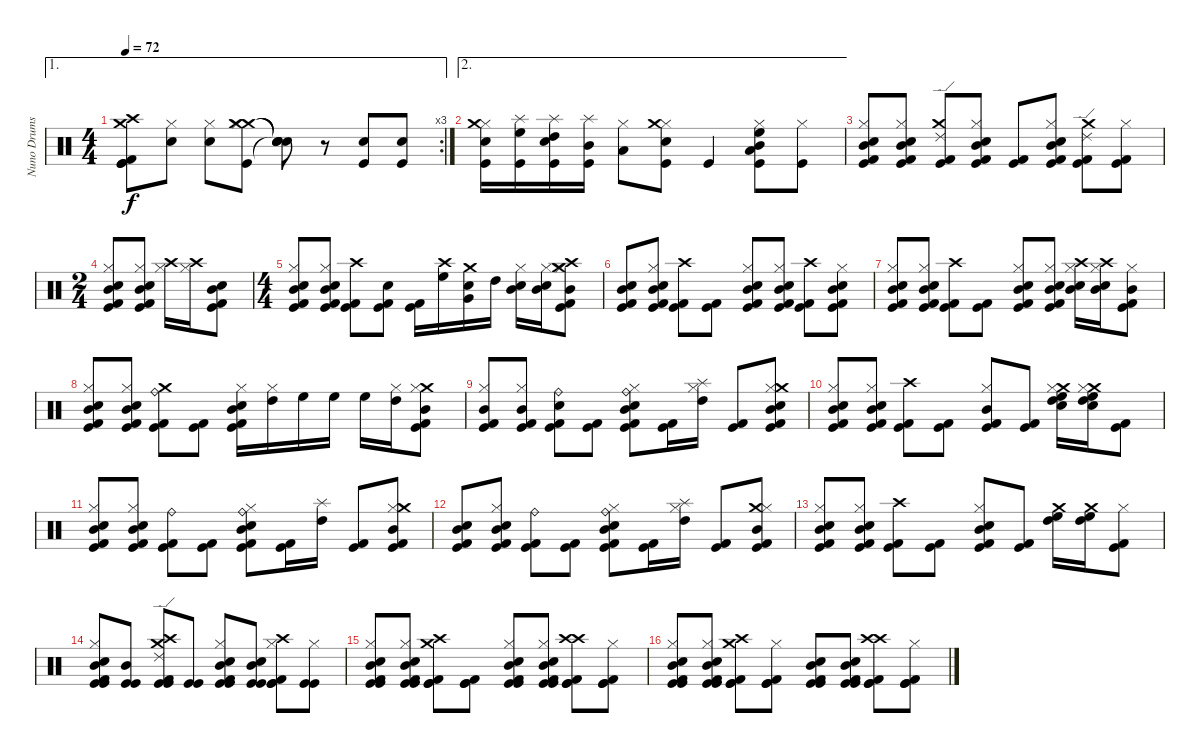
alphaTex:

\track ("Nuno Drums" "Nuno Drums") {instrument percussion}
\staff {score}
\articulation defaults
\ae 1
\rc 3
\ts (4 4)
\tempo 72
\clef neutral
\ks c
("Kick (hit)" "Kick (hit) 2" "Kick (hit)" "Crash medium (hit)" "Crash high (hit)").8{dy f} ("Hi-Hat (closed)" "Electric Snare (hit)").8 ("Hi-Hat (closed)" "Electric Snare (hit)").8 ("Kick (hit)" "Crash medium (hit)" "Crash medium (hit)" "Hi-Hat (closed)").8 ("Snare (hit)"{t} "Snare (hit)"{t} "Snare (hit)"{t} "Snare (hit)"{t}).8 r.8 ("Kick (hit)" "Electric Snare (hit)").8 ("Kick (hit)" "Electric Snare (hit)").8 |
\ae 2
("Kick (hit)" "Hi-Hat (closed)" "Electric Snare (hit)" "Crash medium (hit)").16 ("Kick (hit)" "High Floor Tom (hit)" "Splash (hit)").16 ("Kick (hit)" "High Tom (hit)" "Electric Snare (hit)" "Splash (hit)").16 ("Kick (hit)" "Mid Tom (hit)" "Splash (hit)").16 ("Low Tom (hit)" "Hi-Hat (closed)").8 ("Kick (hit)" "Hi-Hat (closed)" "Electric Snare (hit)" "Crash medium (hit)").8 "Kick (hit)".4 ("Kick (hit)" "High Floor Tom (hit)" "Low Tom (hit)" "Mid Tom (hit)" "Hi-Hat (closed)").8 ("Kick (hit)" "Hi-Hat (closed)").8 |
("Kick (hit)" "Kick (hit) 2" "Electric Snare (hit)" "Mid Tom (hit)" "Hi-Hat (closed)").8 ("Kick (hit)" "Kick (hit) 2" "Electric Snare (hit)" "Mid Tom (hit)" "Hi-Hat (closed)").8 ("Kick (hit)" "Kick (hit) 2" "Crash medium (hit)" "Ride (edge) 2").8 ("Kick (hit)" "Kick (hit) 2" "Electric Snare (hit)" "Mid Tom (hit)" "Hi-Hat (closed)").8 ("Kick (hit)" "Kick (hit) 2").8 ("Kick (hit)" "Kick (hit) 2" "Electric Snare (hit)" "Mid Tom (hit)" "Hi-Hat (closed)").8 ("Kick (hit)" "Kick (hit) 2" "Crash medium (hit)" "Ride (edge) 2").8 ("Kick (hit)" "Kick (hit) 2" "Hi-Hat (closed)").8 |
\ts (2 4)
("Kick (hit)" "Kick (hit) 2" "Electric Snare (hit)" "Hi-Hat (closed)" "Mid Tom (hit)").8 ("Kick (hit) 2" "Kick (hit)" "Electric Snare (hit)" "Hi-Hat (closed)" "Mid Tom (hit)").8 ("Crash high (hit)" "Hi-Hat (closed)").16 ("Crash high (hit)" "Hi-Hat (closed)").16 ("Kick (hit)" "Kick (hit) 2" "Electric Snare (hit)" "Mid Tom (hit)").8 |
\ts (4 4)
("Kick (hit)" "Kick (hit) 2" "Electric Snare (hit)" "Hi-Hat (closed)" "Mid Tom (hit)").8 ("Kick (hit)" "Kick (hit) 2" "Electric Snare (hit)" "Hi-Hat (closed)" "Mid Tom (hit)").8 ("Kick (hit)" "Kick (hit) 2" "Crash high (hit)").8 ("Kick (hit)" "Kick (hit) 2" "Electric Snare (hit)").8 ("Kick (hit) 2" "Kick (hit)").16 ("High Floor Tom (hit)" "Crash high (hit)").16 ("Very Low Tom (hit)" "Crash medium (hit)" "Electric Snare (hit)").16 "High Tom (hit)".16 ("Mid Tom (hit)" "Electric Snare (hit)" "Hi-Hat (closed)").16 ("Mid Tom (hit)" "Electric Snare (hit)" "Hi-Hat (closed)").16 ("Kick (hit)" "Kick (hit) 2" "Crash high (hit)" "Crash medium (hit)" "Hi-Hat (closed)" "Mid Tom (hit)").8 |
("Kick (hit)" "Kick (hit) 2" "Electric Snare (hit)" "Mid Tom (hit)").8 ("Kick (hit)" "Kick (hit) 2" "Electric Snare (hit)" "Hi-Hat (closed)" "Mid Tom (hit)").8 ("Kick (hit)" "Kick (hit) 2" "Crash high (hit)").8 ("Kick (hit)" "Kick (hit) 2").8 ("Kick (hit)" "Kick (hit) 2" "Electric Snare (hit)" "Hi-Hat (closed)" "Mid Tom (hit)").8 ("Kick (hit)" "Kick (hit) 2" "Electric Snare (hit)" "Hi-Hat (closed)" "Mid Tom (hit)").8 ("Kick (hit)" "Kick (hit) 2" "Crash high (hit)").8 ("Kick (hit)" "Kick (hit) 2" "Electric Snare (hit)" "Hi-Hat (closed)" "Mid Tom (hit)").8 |
("Kick (hit)" "Kick (hit) 2" "Electric Snare (hit)" "Hi-Hat (closed)" "Mid Tom (hit)").8 ("Kick (hit)" "Kick (hit) 2" "Electric Snare (hit)" "Hi-Hat (closed)" "Mid Tom (hit)").8 ("Kick (hit)" "Kick (hit) 2" "Crash high (hit)").8 ("Kick (hit)" "Kick (hit) 2").8 ("Kick (hit)" "Kick (hit) 2" "Electric Snare (hit)" "Hi-Hat (closed)" "Mid Tom (hit)").8 ("Kick (hit)" "Kick (hit) 2" "Electric Snare (hit)" "Hi-Hat (closed)" "Mid Tom (hit)").8 ("Crash high (hit)" "Mid Tom (hit)" "Electric Snare (hit)" "Hi-Hat (closed)").16 ("Crash high (hit)" "Mid Tom (hit)" "Electric Snare (hit)" "Hi-Hat (closed)").16 ("Kick (hit)" "Kick (hit) 2" "Hi-Hat (closed)" "Mid Tom (hit)").8 |
("Kick (hit)" "Kick (hit) 2" "Electric Snare (hit)" "Hi-Hat (closed)" "Mid Tom (hit)").8 ("Kick (hit)" "Kick (hit) 2" "Electric Snare (hit)" "Hi-Hat (closed)" "Mid Tom (hit)").8 ("Kick (hit)" "Kick (hit) 2" "Ride (bell)" "Crash medium (hit)").8 ("Kick (hit)" "Kick (hit) 2").8 ("Kick (hit)" "Kick (hit) 2" "Electric Snare (hit)" "Hi-Hat (closed)" "Mid Tom (hit)").16 ("High Tom (hit)" "Hi-Hat (closed)").16 "High Floor Tom (hit)".16 "High Floor Tom (hit)".16 "High Floor Tom (hit)".16 ("High Tom (hit)" "Hi-Hat (closed)").16 ("Kick (hit)" "Kick (hit) 2" "Crash medium (hit)" "Hi-Hat (closed)" "Mid Tom (hit)").8 |
("Kick (hit)" "Kick (hit) 2" "Hi-Hat (closed)" "Mid Tom (hit)").8 ("Kick (hit)" "Kick (hit) 2" "Hi-Hat (closed)" "Mid Tom (hit)").8 ("Kick (hit)" "Kick (hit) 2" "Ride (bell)" "Electric Snare (hit)").8 ("Kick (hit)" "Kick (hit) 2").8 ("Kick (hit)" "Kick (hit) 2" "Ride (bell)" "Hi-Hat (closed)" "Electric Snare (hit)" "Mid Tom (hit)").8 ("Kick (hit)" "Kick (hit) 2").16 ("High Tom (hit)" "Splash (hit)" "Hi-Hat (closed)").16 ("Kick (hit)" "Kick (hit) 2").8 ("Kick (hit)" "Kick (hit) 2" "Hi-Hat (closed)" "Crash medium (hit)" "Electric Snare (hit)" "Mid Tom (hit)").8 |
("Kick (hit)" "Kick (hit) 2" "Hi-Hat (closed)" "Electric Snare (hit)" "Mid Tom (hit)").8 ("Kick (hit)" "Kick (hit) 2" "Hi-Hat (closed)" "Electric Snare (hit)" "Mid Tom (hit)").8 ("Kick (hit)" "Kick (hit) 2" "Crash high (hit)").8 ("Kick (hit)" "Kick (hit) 2").8 ("Kick (hit)" "Kick (hit) 2" "Hi-Hat (closed)" "Mid Tom (hit)").8 ("Kick (hit)" "Kick (hit) 2").8 ("High Floor Tom (hit)" "High Tom (hit)" "Crash medium (hit)" "Electric Snare (hit)" "Hi-Hat (closed)").16 ("High Floor Tom (hit)" "High Tom (hit)" "Crash medium (hit)" "Electric Snare (hit)" "Hi-Hat (closed)").16 ("Kick (hit)" "Kick (hit) 2").8 |
("Kick (hit)" "Kick (hit) 2" "Hi-Hat (closed)" "Electric Snare (hit)" "Mid Tom (hit)").8 ("Kick (hit)" "Kick (hit) 2" "Hi-Hat (closed)" "Electric Snare (hit)" "Mid Tom (hit)").8 ("Kick (hit)" "Kick (hit) 2" "Ride (bell)").8 ("Kick (hit)" "Kick (hit) 2").8 ("Kick (hit)" "Kick (hit) 2" "Ride (bell)" "Hi-Hat (closed)" "Electric Snare (hit)" "Mid Tom (hit)").8 ("Kick (hit)" "Kick (hit) 2").16 ("High Tom (hit)" "Splash (hit)").16 ("Kick (hit)" "Kick (hit) 2").8 ("Kick (hit)" "Kick (hit) 2" "Hi-Hat (closed)" "Crash medium (hit)" "Mid Tom (hit)").8 |
("Kick (hit)" "Kick (hit) 2" "Electric Snare (hit)" "Mid Tom (hit)").8 ("Kick (hit)" "Kick (hit) 2" "Hi-Hat (closed)" "Electric Snare (hit)" "Mid Tom (hit)").8 ("Kick (hit)" "Kick (hit) 2" "Ride (bell)").8 ("Kick (hit)" "Kick (hit) 2").8 ("Kick (hit)" "Kick (hit) 2" "Ride (bell)" "Hi-Hat (closed)" "Electric Snare (hit)" "Mid Tom (hit)").8 ("Kick (hit)" "Kick (hit) 2").16 ("High Tom (hit)" "Splash (hit)" "Hi-Hat (closed)").16 ("Kick (hit)" "Kick (hit) 2").8 ("Kick (hit)" "Kick (hit) 2" "Crash medium (hit)" "Hi-Hat (closed)" "Mid Tom (hit)").8 |
("Kick (hit)" "Kick (hit) 2" "Hi-Hat (closed)" "Electric Snare (hit)" "Mid Tom (hit)").8 ("Kick (hit)" "Kick (hit) 2" "Hi-Hat (closed)" "Electric Snare (hit)" "Mid Tom (hit)").8 ("Kick (hit)" "Kick (hit) 2" "Crash high (hit)").8 ("Kick (hit)" "Kick (hit) 2").8 ("Kick (hit)" "Kick (hit) 2" "Hi-Hat (closed)" "Electric Snare (hit)" "Mid Tom (hit)").8 ("Kick (hit)" "Kick (hit) 2").8 ("High Floor Tom (hit)" "High Tom (hit)" "Crash medium (hit)").16 ("High Floor Tom (hit)" "High Tom (hit)" "Crash medium (hit)").16 ("Kick (hit)" "Kick (hit) 2" "Hi-Hat (closed)").8 |
("Kick (hit)" "Kick (hit)" "Kick (hit) 2" "Hi-Hat (closed)" "Electric Snare (hit)" "Mid Tom (hit)").8 ("Kick (hit)" "Kick (hit)" "Mid Tom (hit)").8 ("Kick (hit)" "Kick (hit)" "Kick (hit) 2" "Crash medium (hit)" "Ride (edge) 2" "Crash high (hit)").8 ("Kick (hit)" "Kick (hit)").8 ("Kick (hit)" "Kick (hit)" "Kick (hit) 2" "Hi-Hat (closed)" "Electric Snare (hit)" "Mid Tom (hit)").8 ("Kick (hit)" "Kick (hit)" "Electric Snare (hit)" "Mid Tom (hit)").8 ("Kick (hit)" "Kick (hit)" "Kick (hit) 2" "Crash high (hit)" "Hi-Hat (closed)").8 ("Kick (hit)" "Kick (hit)" "Hi-Hat (closed)").8 |
("Kick (hit)" "Kick (hit) 2" "Kick (hit)" "Hi-Hat (closed)" "Electric Snare (hit)" "Mid Tom (hit)").8 ("Kick (hit)" "Kick (hit) 2" "Kick (hit)" "Hi-Hat (closed)" "Electric Snare (hit)" "Mid Tom (hit)").8 ("Kick (hit)" "Kick (hit) 2" "Kick (hit)" "Crash medium (hit)" "Crash high (hit)").8 ("Kick (hit)" "Kick (hit) 2" "Kick (hit)").8 ("Kick (hit)" "Kick (hit) 2" "Kick (hit)" "Hi-Hat (closed)" "Electric Snare (hit)" "Mid Tom (hit)").8 ("Kick (hit)" "Kick (hit) 2" "Kick (hit)" "Hi-Hat (closed)" "Electric Snare (hit)" "Mid Tom (hit)").8 ("Kick (hit)" "Kick (hit) 2" "Kick (hit)" "Crash high (hit)" "Crash high (hit)").8 ("Kick (hit)" "Kick (hit) 2" "Kick (hit)" "Hi-Hat (closed)").8 |
("Kick (hit)" "Kick (hit) 2" "Kick (hit)" "Hi-Hat (closed)" "Electric Snare (hit)" "Mid Tom (hit)").8 ("Kick (hit)" "Kick (hit) 2" "Kick (hit)" "Hi-Hat (closed)" "Electric Snare (hit)" "Mid Tom (hit)").8 ("Kick (hit)" "Kick (hit) 2" "Kick (hit)" "Crash medium (hit)" "Crash high (hit)").8 ("Kick (hit)" "Kick (hit) 2" "Kick (hit)" "Hi-Hat (closed)").8 ("Kick (hit)" "Kick (hit) 2" "Kick (hit)" "Electric Snare (hit)" "Mid Tom (hit)").8 ("Kick (hit)" "Kick (hit) 2" "Kick (hit)" "Electric Snare (hit)" "Mid Tom (hit)").8 ("Kick (hit)" "Kick (hit) 2" "Kick (hit)" "Crash high (hit)" "Crash high (hit)").8 ("Kick (hit)" "Kick (hit) 2" "Kick (hit)" "Hi-Hat (closed)").8
